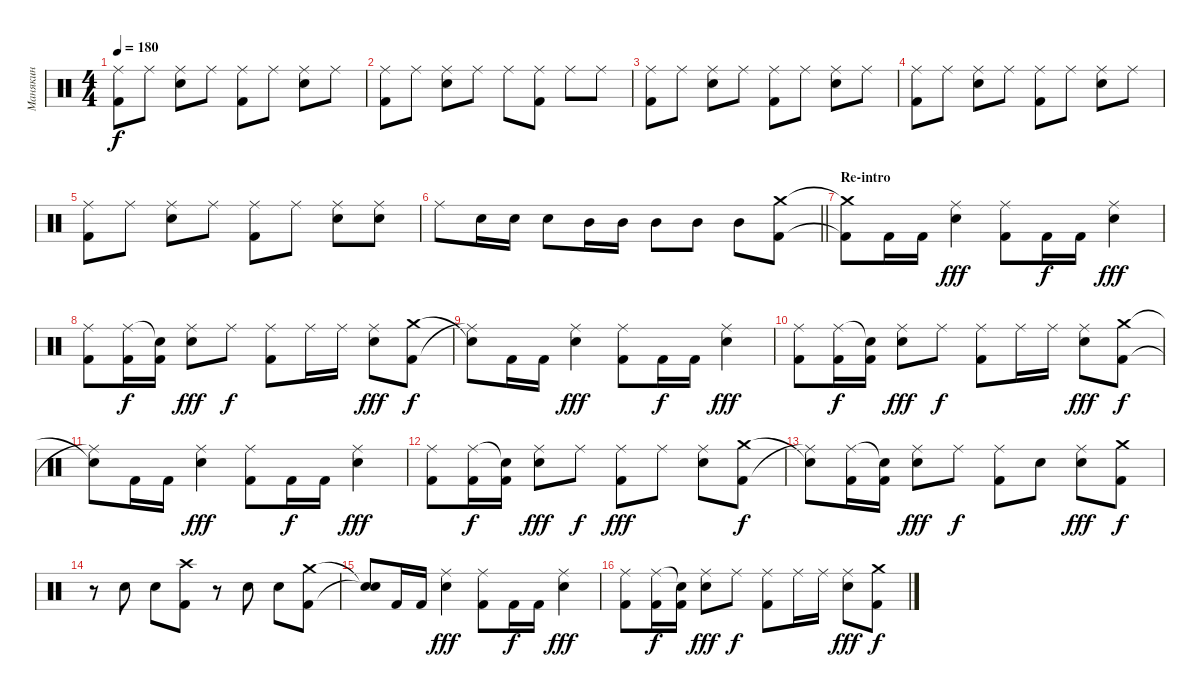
\track ("Манякин" "Манякин") {instrument percussion}
\staff {score}
\articulation defaults
\ts (4 4)
\tempo 180
\clef neutral
\ks c
("Kick (hit) 2" "Ride (middle)").8{dy f} "Ride (middle)".8 ("Snare (hit) 2" "Ride (middle)").8 "Ride (middle)".8 ("Kick (hit) 2" "Ride (middle)").8 "Ride (middle)".8 ("Snare (hit) 2" "Ride (middle)").8 "Ride (middle)".8 |
("Kick (hit) 2" "Ride (middle)").8 "Ride (middle)".8 ("Snare (hit) 2" "Ride (middle)").8 "Ride (middle)".8 "Ride (middle)".8 ("Kick (hit) 2" "Ride (middle)").8 "Ride (middle)".8 "Ride (middle)".8 |
("Kick (hit) 2" "Ride (middle)").8 "Ride (middle)".8 ("Snare (hit) 2" "Ride (middle)").8 "Ride (middle)".8 ("Kick (hit) 2" "Ride (middle)").8 "Ride (middle)".8 ("Snare (hit) 2" "Ride (middle)").8 "Ride (middle)".8 |
("Kick (hit) 2" "Ride (middle)").8 "Ride (middle)".8 ("Snare (hit) 2" "Ride (middle)").8 "Ride (middle)".8 ("Kick (hit) 2" "Ride (middle)").8 "Ride (middle)".8 ("Snare (hit) 2" "Ride (middle)").8 "Ride (middle)".8 |
("Kick (hit) 2" "Ride (middle)").8 "Ride (middle)".8 ("Snare (hit) 2" "Ride (middle)").8 "Ride (middle)".8 ("Kick (hit) 2" "Ride (middle)").8 "Ride (middle)".8 ("Snare (hit) 2" "Ride (middle)").8 ("Snare (hit) 2" "Ride (middle)").8 |
\barLineRight lightlight "Ride (middle)".8 "Snare (hit) 2".16 "Snare (hit) 2".16 "Snare (hit) 2".8 "Mid Tom (hit)".16 "Mid Tom (hit)".16 "Mid Tom (hit)".8 "Mid Tom (hit)".8 "Mid Tom (hit)".8
("Kick (hit) 2" "Crash medium (hit)").8 |
\section ("" "Re-intro ")
("Kick (hit) 2"{t} "Crash medium (hit)"{t}).8 "Kick (hit) 2".16 "Kick (hit) 2".16 ("Snare (hit) 2" "Ride (middle)").4{dy fff} ("Kick (hit) 2" "Ride (middle)").8 "Kick (hit) 2".16{dy f} "Kick (hit) 2".16 ("Snare (hit) 2" "Ride (middle)").4{dy fff} |
("Kick (hit) 2" "Ride (middle)").8 ("Kick (hit) 2" "Ride (middle)").16{dy f} ("Kick (hit) 2" "Snare (hit)"{t}).16 ("Snare (hit) 2" "Ride (middle)").8{dy fff} "Ride (middle)".8{dy f} ("Kick (hit) 2" "Ride (middle)").8 "Ride (middle)".16 "Ride (middle)".16 ("Snare (hit) 2" "Ride (middle)").8{dy fff} ("Kick (hit) 2" "Crash medium (hit)").8{dy f} |
("Ride (middle)"{t} "Snare (hit)"{t}).8 "Kick (hit) 2".16 "Kick (hit) 2".16 ("Snare (hit) 2" "Ride (middle)").4{dy fff} ("Kick (hit) 2" "Ride (middle)").8 "Kick (hit) 2".16{dy f} "Kick (hit) 2".16 ("Snare (hit) 2" "Ride (middle)").4{dy fff} |
("Kick (hit) 2" "Ride (middle)").8 ("Kick (hit) 2" "Ride (middle)").16{dy f} ("Kick (hit) 2" "Snare (hit)"{t}).16 ("Snare (hit) 2" "Ride (middle)").8{dy fff} "Ride (middle)".8{dy f} ("Kick (hit) 2" "Ride (middle)").8 "Ride (middle)".16 "Ride (middle)".16 ("Snare (hit) 2" "Ride (middle)").8{dy fff} ("Kick (hit) 2" "Crash medium (hit)").8{dy f} |
("Ride (middle)"{t} "Snare (hit)"{t}).8 "Kick (hit) 2".16 "Kick (hit) 2".16 ("Snare (hit) 2" "Ride (middle)").4{dy fff} ("Kick (hit) 2" "Ride (middle)").8 "Kick (hit) 2".16{dy f} "Kick (hit) 2".16 ("Snare (hit) 2" "Ride (middle)").4{dy fff} |
("Kick (hit) 2" "Ride (middle)").8 ("Kick (hit) 2" "Ride (middle)").16{dy f} ("Kick (hit) 2" "Snare (hit)"{t}).16 ("Snare (hit) 2" "Ride (middle)").8{dy fff} "Ride (middle)".8{dy f} ("Ride (middle)" "Kick (hit) 2").8{dy fff} "Ride (middle)".8 ("Snare (hit) 2" "Ride (middle)").8 ("Kick (hit) 2" "Crash medium (hit)").8{dy f} |
("Ride (middle)"{t} "Snare (hit)"{t}).8 ("Kick (hit) 2" "Ride (middle)").16 ("Kick (hit) 2" "Snare (hit)"{t}).16 ("Snare (hit) 2" "Ride (middle)").8{dy fff} "Ride (middle)".8{dy f} ("Ride (middle)" "Kick (hit) 2").8 "Snare (hit) 2".8 ("Snare (hit) 2" "Ride (middle)").8{dy fff} ("Kick (hit) 2" "Crash medium (hit)").8{dy f} |
r.8 "Snare (hit) 2".8 "Snare (hit) 2".8 ("Kick (hit) 2" "Crash high (hit)").8 r.8 "Snare (hit) 2".8 "Snare (hit) 2".8 ("Kick (hit) 2" "Crash medium (hit)").8 |
("Snare (hit)"{t} "Snare (hit)"{t}).8 "Kick (hit) 2".16 "Kick (hit) 2".16 ("Snare (hit) 2" "Ride (middle)").4{dy fff} ("Kick (hit) 2" "Ride (middle)").8 "Kick (hit) 2".16{dy f} "Kick (hit) 2".16 ("Snare (hit) 2" "Ride (middle)").4{dy fff} |
("Kick (hit) 2" "Ride (middle)").8 ("Kick (hit) 2" "Ride (middle)").16{dy f} ("Kick (hit) 2" "Snare (hit)"{t}).16 ("Snare (hit) 2" "Ride (middle)").8{dy fff} "Ride (middle)".8{dy f} ("Kick (hit) 2" "Ride (middle)").8 "Ride (middle)".16 "Ride (middle)".16 ("Snare (hit) 2" "Ride (middle)").8{dy fff} ("Kick (hit) 2" "Crash medium (hit)").8{dy f}
